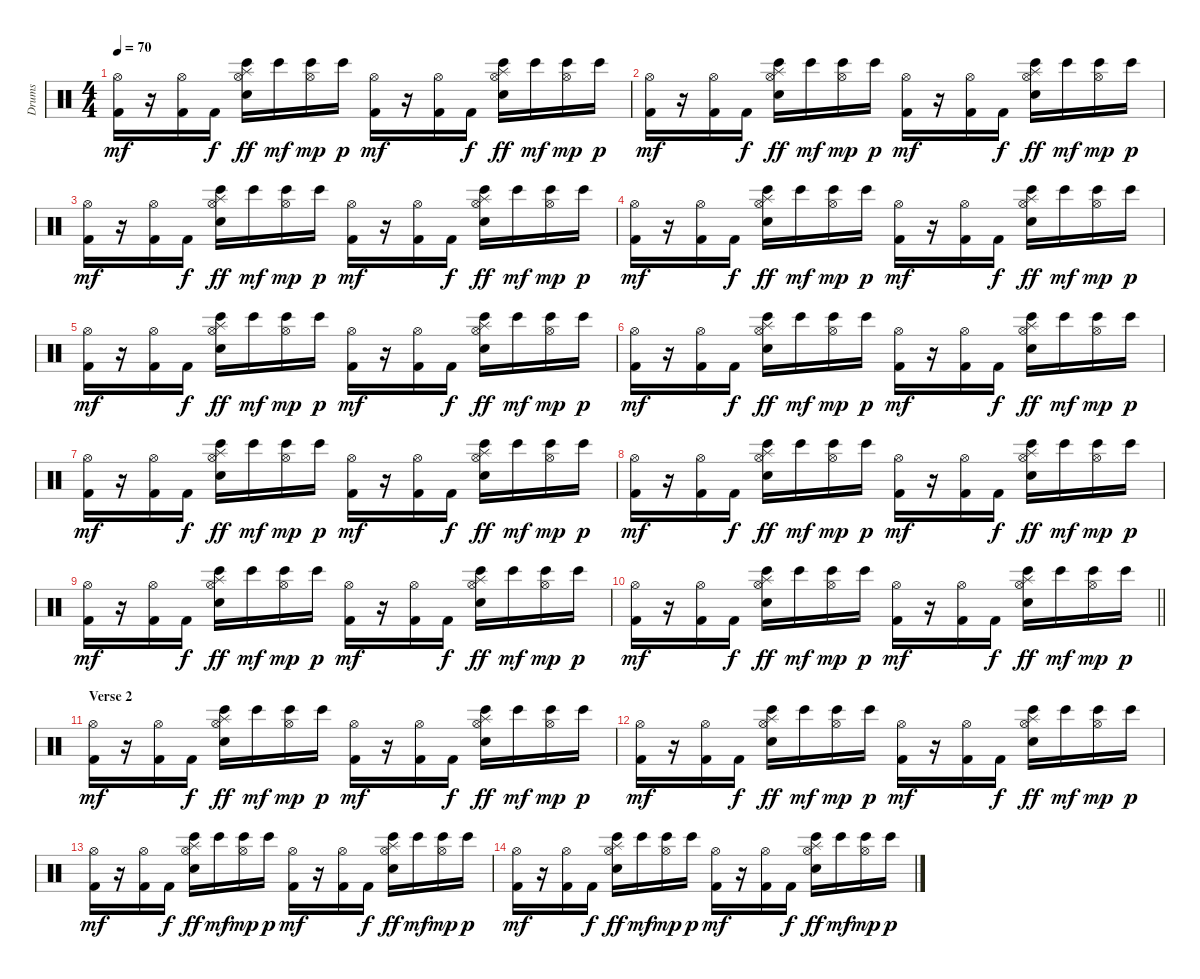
\track ("Drums" "Drums") {instrument percussion}
\staff {score}
\articulation defaults
\ts (4 4)
\tempo 70
\clef neutral
\ks c
("Hi-Hat (open)" "Kick (hit) 2").16{dy mf} r.16 ("Hi-Hat (open)" "Kick (hit) 2").16 "Kick (hit) 2".16{dy f} ("Hi-Hat (open)" "Splash (hit)" "Snare (hit) 2" "Bongo High (hit)").16{dy ff} "Bongo High (hit)".16{dy mf} ("Hi-Hat (open)" "Bongo High (hit)").16{dy mp} "Bongo High (hit)".16{dy p} ("Hi-Hat (open)" "Kick (hit) 2").16{dy mf} r.16 ("Hi-Hat (open)" "Kick (hit) 2").16 "Kick (hit) 2".16{dy f} ("Hi-Hat (open)" "Splash (hit)" "Snare (hit) 2" "Bongo High (hit)").16{dy ff} "Bongo High (hit)".16{dy mf} ("Hi-Hat (open)" "Bongo High (hit)").16{dy mp} "Bongo High (hit)".16{dy p} |
("Hi-Hat (open)" "Kick (hit) 2").16{dy mf} r.16 ("Hi-Hat (open)" "Kick (hit) 2").16 "Kick (hit) 2".16{dy f} ("Hi-Hat (open)" "Splash (hit)" "Snare (hit) 2" "Bongo High (hit)").16{dy ff} "Bongo High (hit)".16{dy mf} ("Hi-Hat (open)" "Bongo High (hit)").16{dy mp} "Bongo High (hit)".16{dy p} ("Hi-Hat (open)" "Kick (hit) 2").16{dy mf} r.16 ("Hi-Hat (open)" "Kick (hit) 2").16 "Kick (hit) 2".16{dy f} ("Hi-Hat (open)" "Splash (hit)" "Snare (hit) 2" "Bongo High (hit)").16{dy ff} "Bongo High (hit)".16{dy mf} ("Hi-Hat (open)" "Bongo High (hit)").16{dy mp} "Bongo High (hit)".16{dy p} |
("Hi-Hat (open)" "Kick (hit) 2").16{dy mf} r.16 ("Hi-Hat (open)" "Kick (hit) 2").16 "Kick (hit) 2".16{dy f} ("Hi-Hat (open)" "Splash (hit)" "Snare (hit) 2" "Bongo High (hit)").16{dy ff} "Bongo High (hit)".16{dy mf} ("Hi-Hat (open)" "Bongo High (hit)").16{dy mp} "Bongo High (hit)".16{dy p} ("Hi-Hat (open)" "Kick (hit) 2").16{dy mf} r.16 ("Hi-Hat (open)" "Kick (hit) 2").16 "Kick (hit) 2".16{dy f} ("Hi-Hat (open)" "Splash (hit)" "Snare (hit) 2" "Bongo High (hit)").16{dy ff} "Bongo High (hit)".16{dy mf} ("Hi-Hat (open)" "Bongo High (hit)").16{dy mp} "Bongo High (hit)".16{dy p} |
("Hi-Hat (open)" "Kick (hit) 2").16{dy mf} r.16 ("Hi-Hat (open)" "Kick (hit) 2").16 "Kick (hit) 2".16{dy f} ("Hi-Hat (open)" "Splash (hit)" "Snare (hit) 2" "Bongo High (hit)").16{dy ff} "Bongo High (hit)".16{dy mf} ("Hi-Hat (open)" "Bongo High (hit)").16{dy mp} "Bongo High (hit)".16{dy p} ("Hi-Hat (open)" "Kick (hit) 2").16{dy mf} r.16 ("Hi-Hat (open)" "Kick (hit) 2").16 "Kick (hit) 2".16{dy f} ("Hi-Hat (open)" "Splash (hit)" "Snare (hit) 2" "Bongo High (hit)").16{dy ff} "Bongo High (hit)".16{dy mf} ("Hi-Hat (open)" "Bongo High (hit)").16{dy mp} "Bongo High (hit)".16{dy p} |
("Hi-Hat (open)" "Kick (hit) 2").16{dy mf} r.16 ("Hi-Hat (open)" "Kick (hit) 2").16 "Kick (hit) 2".16{dy f} ("Hi-Hat (open)" "Splash (hit)" "Snare (hit) 2" "Bongo High (hit)").16{dy ff} "Bongo High (hit)".16{dy mf} ("Hi-Hat (open)" "Bongo High (hit)").16{dy mp} "Bongo High (hit)".16{dy p} ("Hi-Hat (open)" "Kick (hit) 2").16{dy mf} r.16 ("Hi-Hat (open)" "Kick (hit) 2").16 "Kick (hit) 2".16{dy f} ("Hi-Hat (open)" "Splash (hit)" "Snare (hit) 2" "Bongo High (hit)").16{dy ff} "Bongo High (hit)".16{dy mf} ("Hi-Hat (open)" "Bongo High (hit)").16{dy mp} "Bongo High (hit)".16{dy p} |
("Hi-Hat (open)" "Kick (hit) 2").16{dy mf} r.16 ("Hi-Hat (open)" "Kick (hit) 2").16 "Kick (hit) 2".16{dy f} ("Hi-Hat (open)" "Splash (hit)" "Snare (hit) 2" "Bongo High (hit)").16{dy ff} "Bongo High (hit)".16{dy mf} ("Hi-Hat (open)" "Bongo High (hit)").16{dy mp} "Bongo High (hit)".16{dy p} ("Hi-Hat (open)" "Kick (hit) 2").16{dy mf} r.16 ("Hi-Hat (open)" "Kick (hit) 2").16 "Kick (hit) 2".16{dy f} ("Hi-Hat (open)" "Splash (hit)" "Snare (hit) 2" "Bongo High (hit)").16{dy ff} "Bongo High (hit)".16{dy mf} ("Hi-Hat (open)" "Bongo High (hit)").16{dy mp} "Bongo High (hit)".16{dy p} |
("Hi-Hat (open)" "Kick (hit) 2").16{dy mf} r.16 ("Hi-Hat (open)" "Kick (hit) 2").16 "Kick (hit) 2".16{dy f} ("Hi-Hat (open)" "Splash (hit)" "Snare (hit) 2" "Bongo High (hit)").16{dy ff} "Bongo High (hit)".16{dy mf} ("Hi-Hat (open)" "Bongo High (hit)").16{dy mp} "Bongo High (hit)".16{dy p} ("Hi-Hat (open)" "Kick (hit) 2").16{dy mf} r.16 ("Hi-Hat (open)" "Kick (hit) 2").16 "Kick (hit) 2".16{dy f} ("Hi-Hat (open)" "Splash (hit)" "Snare (hit) 2" "Bongo High (hit)").16{dy ff} "Bongo High (hit)".16{dy mf} ("Hi-Hat (open)" "Bongo High (hit)").16{dy mp} "Bongo High (hit)".16{dy p} |
("Hi-Hat (open)" "Kick (hit) 2").16{dy mf} r.16 ("Hi-Hat (open)" "Kick (hit) 2").16 "Kick (hit) 2".16{dy f} ("Hi-Hat (open)" "Splash (hit)" "Snare (hit) 2" "Bongo High (hit)").16{dy ff} "Bongo High (hit)".16{dy mf} ("Hi-Hat (open)" "Bongo High (hit)").16{dy mp} "Bongo High (hit)".16{dy p} ("Hi-Hat (open)" "Kick (hit) 2").16{dy mf} r.16 ("Hi-Hat (open)" "Kick (hit) 2").16 "Kick (hit) 2".16{dy f} ("Hi-Hat (open)" "Splash (hit)" "Snare (hit) 2" "Bongo High (hit)").16{dy ff} "Bongo High (hit)".16{dy mf} ("Hi-Hat (open)" "Bongo High (hit)").16{dy mp} "Bongo High (hit)".16{dy p} |
("Hi-Hat (open)" "Kick (hit) 2").16{dy mf} r.16 ("Hi-Hat (open)" "Kick (hit) 2").16 "Kick (hit) 2".16{dy f} ("Hi-Hat (open)" "Splash (hit)" "Snare (hit) 2" "Bongo High (hit)").16{dy ff} "Bongo High (hit)".16{dy mf} ("Hi-Hat (open)" "Bongo High (hit)").16{dy mp} "Bongo High (hit)".16{dy p} ("Hi-Hat (open)" "Kick (hit) 2").16{dy mf} r.16 ("Hi-Hat (open)" "Kick (hit) 2").16 "Kick (hit) 2".16{dy f} ("Hi-Hat (open)" "Splash (hit)" "Snare (hit) 2" "Bongo High (hit)").16{dy ff} "Bongo High (hit)".16{dy mf} ("Hi-Hat (open)" "Bongo High (hit)").16{dy mp} "Bongo High (hit)".16{dy p} |
\barLineRight lightlight
("Hi-Hat (open)" "Kick (hit) 2").16{dy mf} r.16 ("Hi-Hat (open)" "Kick (hit) 2").16 "Kick (hit) 2".16{dy f} ("Hi-Hat (open)" "Splash (hit)" "Snare (hit) 2" "Bongo High (hit)").16{dy ff} "Bongo High (hit)".16{dy mf} ("Hi-Hat (open)" "Bongo High (hit)").16{dy mp} "Bongo High (hit)".16{dy p} ("Hi-Hat (open)" "Kick (hit) 2").16{dy mf} r.16 ("Hi-Hat (open)" "Kick (hit) 2").16 "Kick (hit) 2".16{dy f} ("Hi-Hat (open)" "Splash (hit)" "Snare (hit) 2" "Bongo High (hit)").16{dy ff} "Bongo High (hit)".16{dy mf} ("Hi-Hat (open)" "Bongo High (hit)").16{dy mp} "Bongo High (hit)".16{dy p} |
\section ("" "Verse 2")
("Hi-Hat (open)" "Kick (hit) 2").16{dy mf} r.16 ("Hi-Hat (open)" "Kick (hit) 2").16 "Kick (hit) 2".16{dy f} ("Hi-Hat (open)" "Splash (hit)" "Snare (hit) 2" "Bongo High (hit)").16{dy ff} "Bongo High (hit)".16{dy mf} ("Hi-Hat (open)" "Bongo High (hit)").16{dy mp} "Bongo High (hit)".16{dy p} ("Hi-Hat (open)" "Kick (hit) 2").16{dy mf} r.16 ("Hi-Hat (open)" "Kick (hit) 2").16 "Kick (hit) 2".16{dy f} ("Hi-Hat (open)" "Splash (hit)" "Snare (hit) 2" "Bongo High (hit)").16{dy ff} "Bongo High (hit)".16{dy mf} ("Hi-Hat (open)" "Bongo High (hit)").16{dy mp} "Bongo High (hit)".16{dy p} |
("Hi-Hat (open)" "Kick (hit) 2").16{dy mf} r.16 ("Hi-Hat (open)" "Kick (hit) 2").16 "Kick (hit) 2".16{dy f} ("Hi-Hat (open)" "Splash (hit)" "Snare (hit) 2" "Bongo High (hit)").16{dy ff} "Bongo High (hit)".16{dy mf} ("Hi-Hat (open)" "Bongo High (hit)").16{dy mp} "Bongo High (hit)".16{dy p} ("Hi-Hat (open)" "Kick (hit) 2").16{dy mf} r.16 ("Hi-Hat (open)" "Kick (hit) 2").16 "Kick (hit) 2".16{dy f} ("Hi-Hat (open)" "Splash (hit)" "Snare (hit) 2" "Bongo High (hit)").16{dy ff} "Bongo High (hit)".16{dy mf} ("Hi-Hat (open)" "Bongo High (hit)").16{dy mp} "Bongo High (hit)".16{dy p} |
("Hi-Hat (open)" "Kick (hit) 2").16{dy mf} r.16 ("Hi-Hat (open)" "Kick (hit) 2").16 "Kick (hit) 2".16{dy f} ("Hi-Hat (open)" "Splash (hit)" "Snare (hit) 2" "Bongo High (hit)").16{dy ff} "Bongo High (hit)".16{dy mf} ("Hi-Hat (open)" "Bongo High (hit)").16{dy mp} "Bongo High (hit)".16{dy p} ("Hi-Hat (open)" "Kick (hit) 2").16{dy mf} r.16 ("Hi-Hat (open)" "Kick (hit) 2").16 "Kick (hit) 2".16{dy f} ("Hi-Hat (open)" "Splash (hit)" "Snare (hit) 2" "Bongo High (hit)").16{dy ff} "Bongo High (hit)".16{dy mf} ("Hi-Hat (open)" "Bongo High (hit)").16{dy mp} "Bongo High (hit)".16{dy p} |
("Hi-Hat (open)" "Kick (hit) 2").16{dy mf} r.16 ("Hi-Hat (open)" "Kick (hit) 2").16 "Kick (hit) 2".16{dy f} ("Hi-Hat (open)" "Splash (hit)" "Snare (hit) 2" "Bongo High (hit)").16{dy ff} "Bongo High (hit)".16{dy mf} ("Hi-Hat (open)" "Bongo High (hit)").16{dy mp} "Bongo High (hit)".16{dy p} ("Hi-Hat (open)" "Kick (hit) 2").16{dy mf} r.16 ("Hi-Hat (open)" "Kick (hit) 2").16 "Kick (hit) 2".16{dy f} ("Hi-Hat (open)" "Splash (hit)" "Snare (hit) 2" "Bongo High (hit)").16{dy ff} "Bongo High (hit)".16{dy mf} ("Hi-Hat (open)" "Bongo High (hit)").16{dy mp} "Bongo High (hit)".16{dy p}
